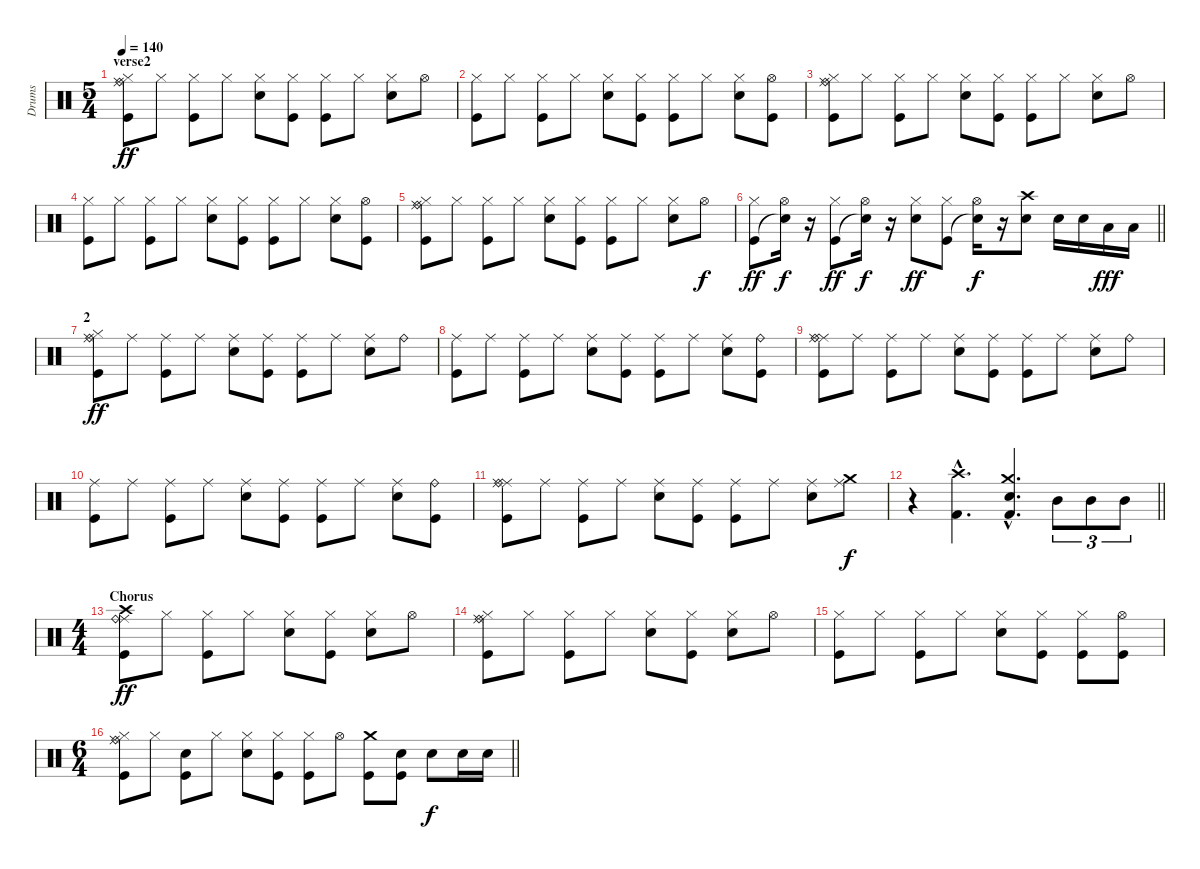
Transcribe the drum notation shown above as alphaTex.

\track ("Drums" "Drums") {instrument percussion}
\staff {score}
\articulation defaults
\ts (5 4)
\section ("" "verse2")
\tempo 140
\clef neutral
\ks c
("Kick (hit)" "Hi-Hat (closed)" "Ride (middle)" "Ride (bell)").8{dy ff} "Hi-Hat (closed)".8 ("Kick (hit)" "Hi-Hat (closed)").8 "Hi-Hat (closed)".8 ("Snare (hit) 2" "Hi-Hat (closed)").8 ("Kick (hit)" "Hi-Hat (closed)").8 ("Kick (hit)" "Hi-Hat (closed)").8 "Hi-Hat (closed)".8 ("Snare (hit) 2" "Hi-Hat (closed)").8 "Hi-Hat (open)".8 |
("Kick (hit)" "Hi-Hat (closed)").8 "Hi-Hat (closed)".8 ("Kick (hit)" "Hi-Hat (closed)").8 "Hi-Hat (closed)".8 ("Snare (hit) 2" "Hi-Hat (closed)").8 ("Kick (hit)" "Hi-Hat (closed)").8 ("Kick (hit)" "Hi-Hat (closed)").8 "Hi-Hat (closed)".8 ("Snare (hit) 2" "Hi-Hat (closed)").8 ("Kick (hit)" "Hi-Hat (open)").8 |
("Kick (hit)" "Hi-Hat (closed)" "Ride (middle)" "Ride (bell)").8 "Hi-Hat (closed)".8 ("Kick (hit)" "Hi-Hat (closed)").8 "Hi-Hat (closed)".8 ("Snare (hit) 2" "Hi-Hat (closed)").8 ("Kick (hit)" "Hi-Hat (closed)").8 ("Kick (hit)" "Hi-Hat (closed)").8 "Hi-Hat (closed)".8 ("Snare (hit) 2" "Hi-Hat (closed)").8 "Hi-Hat (open)".8 |
("Kick (hit)" "Hi-Hat (closed)").8 "Hi-Hat (closed)".8 ("Kick (hit)" "Hi-Hat (closed)").8 "Hi-Hat (closed)".8 ("Snare (hit) 2" "Hi-Hat (closed)").8 ("Kick (hit)" "Hi-Hat (closed)").8 ("Kick (hit)" "Hi-Hat (closed)").8 "Hi-Hat (closed)".8 ("Snare (hit) 2" "Hi-Hat (closed)").8 ("Kick (hit)" "Hi-Hat (open)").8 |
("Kick (hit)" "Hi-Hat (closed)" "Ride (middle)" "Ride (bell)").8 "Hi-Hat (closed)".8 ("Kick (hit)" "Hi-Hat (closed)").8 "Hi-Hat (closed)".8 ("Snare (hit) 2" "Hi-Hat (closed)").8 ("Kick (hit)" "Hi-Hat (closed)").8 ("Kick (hit)" "Hi-Hat (closed)").8 "Hi-Hat (closed)".8 ("Snare (hit) 2" "Hi-Hat (closed)").8 "Hi-Hat (open)".8{dy f} |
\barLineRight lightlight
("Kick (hit)" "Hi-Hat (closed)").8{dy ff} ("Snare (hit)"{t} "Hi-Hat (open)").16{dy f} r.16 ("Kick (hit)" "Hi-Hat (closed)").8{dy ff} ("Snare (hit)"{t} "Hi-Hat (open)").16{dy f} r.16 ("Snare (hit) 2" "Hi-Hat (closed)").8{dy ff} ("Kick (hit)" "Hi-Hat (closed)").8 ("Snare (hit)"{t} "Hi-Hat (open)").16{dy f} r.16 ("Snare (hit) 2" "Crash high (hit)").8 "Snare (hit) 2".16 "Snare (hit) 2".16 "Low Floor Tom (hit)".16{dy fff} "Low Floor Tom (hit)".16 |
\section ("" "2")
("Kick (hit)" "Hi-Hat (closed)" "Ride (middle)" "Ride (bell)").8{dy ff} "Ride (middle)".8 ("Kick (hit)" "Ride (middle)").8 "Ride (middle)".8 ("Snare (hit) 2" "Ride (middle)").8 ("Kick (hit)" "Ride (middle)").8 ("Kick (hit)" "Ride (middle)").8 "Ride (middle)".8 ("Snare (hit) 2" "Ride (middle)").8 "Ride (bell)".8 |
("Kick (hit)" "Ride (middle)").8 "Ride (middle)".8 ("Kick (hit)" "Ride (middle)").8 "Ride (middle)".8 ("Snare (hit) 2" "Ride (middle)").8 ("Kick (hit)" "Ride (middle)").8 ("Kick (hit)" "Ride (middle)").8 "Ride (middle)".8 ("Snare (hit) 2" "Ride (middle)").8 ("Kick (hit)" "Ride (bell)").8 |
("Kick (hit)" "Ride (middle)" "Ride (middle)" "Ride (bell)").8 "Ride (middle)".8 ("Kick (hit)" "Ride (middle)").8 "Ride (middle)".8 ("Snare (hit) 2" "Ride (middle)").8 ("Kick (hit)" "Ride (middle)").8 ("Kick (hit)" "Ride (middle)").8 "Ride (middle)".8 ("Snare (hit) 2" "Ride (middle)").8 "Ride (bell)".8 |
("Kick (hit)" "Ride (middle)").8 "Ride (middle)".8 ("Kick (hit)" "Ride (middle)").8 "Ride (middle)".8 ("Snare (hit) 2" "Ride (middle)").8 ("Kick (hit)" "Ride (middle)").8 ("Kick (hit)" "Ride (middle)").8 "Ride (middle)".8 ("Snare (hit) 2" "Ride (middle)").8 ("Kick (hit)" "Ride (bell)").8 |
("Kick (hit)" "Ride (middle)" "Ride (middle)" "Ride (bell)").8 "Ride (middle)".8 ("Kick (hit)" "Ride (middle)").8 "Ride (middle)".8 ("Snare (hit) 2" "Ride (middle)").8 ("Kick (hit)" "Ride (middle)").8 ("Kick (hit)" "Ride (middle)").8 "Ride (middle)".8 ("Snare (hit) 2" "Ride (middle)").8 ("Crash medium (hit)" "Ride (middle)").8{dy f} |
\barLineRight lightlight
r.4 ("Crash high (hit)"{hac} "Kick (hit) 2"{hac}).4{d} ("Crash medium (hit)"{hac} "Snare (hit) 2"{hac} "Kick (hit) 2"{hac}).4{d} "Mid Tom (hit)".8{tu (3 2)} "Mid Tom (hit)".8{tu (3 2)} "Mid Tom (hit)".8{tu (3 2)} |
\ts (4 4)
\section ("" "Chorus")
("Kick (hit)" "Crash high (hit)" "Ride (middle)" "Ride (bell)").8{dy ff} "Hi-Hat (closed)".8 ("Kick (hit)" "Hi-Hat (closed)").8 "Hi-Hat (closed)".8 ("Snare (hit) 2" "Hi-Hat (closed)").8 ("Kick (hit)" "Hi-Hat (closed)").8 ("Snare (hit) 2" "Hi-Hat (closed)").8 "Hi-Hat (open)".8 |
("Kick (hit)" "Hi-Hat (closed)" "Ride (middle)" "Ride (bell)").8 "Hi-Hat (closed)".8 ("Kick (hit)" "Hi-Hat (closed)").8 "Hi-Hat (closed)".8 ("Snare (hit) 2" "Hi-Hat (closed)").8 ("Kick (hit)" "Hi-Hat (closed)").8 ("Snare (hit) 2" "Hi-Hat (closed)").8 "Hi-Hat (open)".8 |
("Kick (hit)" "Hi-Hat (closed)").8 "Hi-Hat (closed)".8 ("Kick (hit)" "Hi-Hat (closed)").8 "Hi-Hat (closed)".8 ("Snare (hit) 2" "Hi-Hat (closed)").8 ("Kick (hit)" "Hi-Hat (closed)").8 ("Kick (hit)" "Hi-Hat (closed)").8 ("Kick (hit)" "Hi-Hat (open)").8 |
\ts (6 4)
\barLineRight lightlight
("Kick (hit)" "Hi-Hat (closed)" "Ride (middle)" "Ride (bell)").8 "Hi-Hat (closed)".8 ("Kick (hit)" "Snare (hit) 2").8 "Hi-Hat (closed)".8 ("Snare (hit) 2" "Hi-Hat (closed)").8 ("Kick (hit)" "Hi-Hat (closed)").8 ("Kick (hit)" "Hi-Hat (closed)").8 "Hi-Hat (open)".8 ("Kick (hit)" "Crash medium (hit)").8 ("Kick (hit)" "Snare (hit) 2").8 "Snare (hit) 2".8{dy f} "Snare (hit) 2".16 "Snare (hit) 2".16
